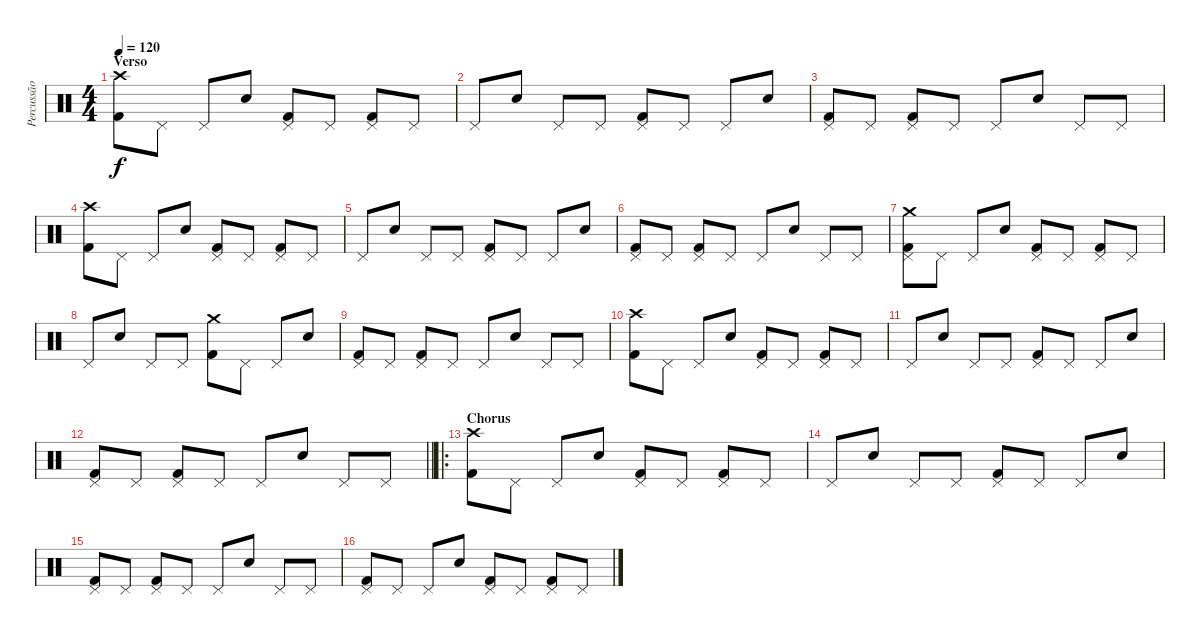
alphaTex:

\track ("Percussão" "Percussão") {instrument percussion}
\staff {score}
\articulation defaults
\ts (4 4)
\section ("" "Verso")
\tempo 120
\clef neutral
\ks c
("Crash high (hit)" "Kick (hit) 2").8{dy f} "Pedal Hi-Hat (hit)".8 "Pedal Hi-Hat (hit)".8 "Snare (hit) 2".8 ("Pedal Hi-Hat (hit)" "Kick (hit) 2").8 "Pedal Hi-Hat (hit)".8 ("Pedal Hi-Hat (hit)" "Kick (hit) 2").8 "Pedal Hi-Hat (hit)".8 |
"Pedal Hi-Hat (hit)".8 "Snare (hit) 2".8 "Pedal Hi-Hat (hit)".8 "Pedal Hi-Hat (hit)".8 ("Pedal Hi-Hat (hit)" "Kick (hit) 2").8 "Pedal Hi-Hat (hit)".8 "Pedal Hi-Hat (hit)".8 "Snare (hit) 2".8 |
("Pedal Hi-Hat (hit)" "Kick (hit) 2").8 "Pedal Hi-Hat (hit)".8 ("Pedal Hi-Hat (hit)" "Kick (hit) 2").8 "Pedal Hi-Hat (hit)".8 "Pedal Hi-Hat (hit)".8 "Snare (hit) 2".8 "Pedal Hi-Hat (hit)".8 "Pedal Hi-Hat (hit)".8 |
("Crash high (hit)" "Kick (hit) 2").8 "Pedal Hi-Hat (hit)".8 "Pedal Hi-Hat (hit)".8 "Snare (hit) 2".8 ("Pedal Hi-Hat (hit)" "Kick (hit) 2").8 "Pedal Hi-Hat (hit)".8 ("Pedal Hi-Hat (hit)" "Kick (hit) 2").8 "Pedal Hi-Hat (hit)".8 |
"Pedal Hi-Hat (hit)".8 "Snare (hit) 2".8 "Pedal Hi-Hat (hit)".8 "Pedal Hi-Hat (hit)".8 ("Pedal Hi-Hat (hit)" "Kick (hit) 2").8 "Pedal Hi-Hat (hit)".8 "Pedal Hi-Hat (hit)".8 "Snare (hit) 2".8 |
("Pedal Hi-Hat (hit)" "Kick (hit) 2").8 "Pedal Hi-Hat (hit)".8 ("Pedal Hi-Hat (hit)" "Kick (hit) 2").8 "Pedal Hi-Hat (hit)".8 "Pedal Hi-Hat (hit)".8 "Snare (hit) 2".8 "Pedal Hi-Hat (hit)".8 "Pedal Hi-Hat (hit)".8 |
("Pedal Hi-Hat (hit)" "Crash medium (hit)" "Kick (hit) 2").8 "Pedal Hi-Hat (hit)".8 "Pedal Hi-Hat (hit)".8 "Snare (hit) 2".8 ("Pedal Hi-Hat (hit)" "Kick (hit) 2").8 "Pedal Hi-Hat (hit)".8 ("Pedal Hi-Hat (hit)" "Kick (hit) 2").8 "Pedal Hi-Hat (hit)".8 |
"Pedal Hi-Hat (hit)".8 "Snare (hit) 2".8 "Pedal Hi-Hat (hit)".8 "Pedal Hi-Hat (hit)".8 ("Crash medium (hit)" "Kick (hit) 2").8 "Pedal Hi-Hat (hit)".8 "Pedal Hi-Hat (hit)".8 "Snare (hit) 2".8 |
("Pedal Hi-Hat (hit)" "Kick (hit) 2").8 "Pedal Hi-Hat (hit)".8 ("Pedal Hi-Hat (hit)" "Kick (hit) 2").8 "Pedal Hi-Hat (hit)".8 "Pedal Hi-Hat (hit)".8 "Snare (hit) 2".8 "Pedal Hi-Hat (hit)".8 "Pedal Hi-Hat (hit)".8 |
("Crash high (hit)" "Kick (hit) 2").8 "Pedal Hi-Hat (hit)".8 "Pedal Hi-Hat (hit)".8 "Snare (hit) 2".8 ("Pedal Hi-Hat (hit)" "Kick (hit) 2").8 "Pedal Hi-Hat (hit)".8 ("Pedal Hi-Hat (hit)" "Kick (hit) 2").8 "Pedal Hi-Hat (hit)".8 |
"Pedal Hi-Hat (hit)".8 "Snare (hit) 2".8 "Pedal Hi-Hat (hit)".8 "Pedal Hi-Hat (hit)".8 ("Pedal Hi-Hat (hit)" "Kick (hit) 2").8 "Pedal Hi-Hat (hit)".8 "Pedal Hi-Hat (hit)".8 "Snare (hit) 2".8 |
\barLineRight lightlight
("Pedal Hi-Hat (hit)" "Kick (hit) 2").8 "Pedal Hi-Hat (hit)".8 ("Pedal Hi-Hat (hit)" "Kick (hit) 2").8 "Pedal Hi-Hat (hit)".8 "Pedal Hi-Hat (hit)".8 "Snare (hit) 2".8 "Pedal Hi-Hat (hit)".8 "Pedal Hi-Hat (hit)".8 |
\ro
\section ("" "Chorus")
("Crash high (hit)" "Kick (hit) 2").8 "Pedal Hi-Hat (hit)".8 "Pedal Hi-Hat (hit)".8 "Snare (hit) 2".8 ("Pedal Hi-Hat (hit)" "Kick (hit) 2").8 "Pedal Hi-Hat (hit)".8 ("Pedal Hi-Hat (hit)" "Kick (hit) 2").8 "Pedal Hi-Hat (hit)".8 |
"Pedal Hi-Hat (hit)".8 "Snare (hit) 2".8 "Pedal Hi-Hat (hit)".8 "Pedal Hi-Hat (hit)".8 ("Pedal Hi-Hat (hit)" "Kick (hit) 2").8 "Pedal Hi-Hat (hit)".8 "Pedal Hi-Hat (hit)".8 "Snare (hit) 2".8 |
("Pedal Hi-Hat (hit)" "Kick (hit) 2").8 "Pedal Hi-Hat (hit)".8 ("Pedal Hi-Hat (hit)" "Kick (hit) 2").8 "Pedal Hi-Hat (hit)".8 "Pedal Hi-Hat (hit)".8 "Snare (hit) 2".8 "Pedal Hi-Hat (hit)".8 "Pedal Hi-Hat (hit)".8 |
("Pedal Hi-Hat (hit)" "Kick (hit) 2").8 "Pedal Hi-Hat (hit)".8 "Pedal Hi-Hat (hit)".8 "Snare (hit) 2".8 ("Pedal Hi-Hat (hit)" "Kick (hit) 2").8 "Pedal Hi-Hat (hit)".8 ("Pedal Hi-Hat (hit)" "Kick (hit) 2").8 "Pedal Hi-Hat (hit)".8
